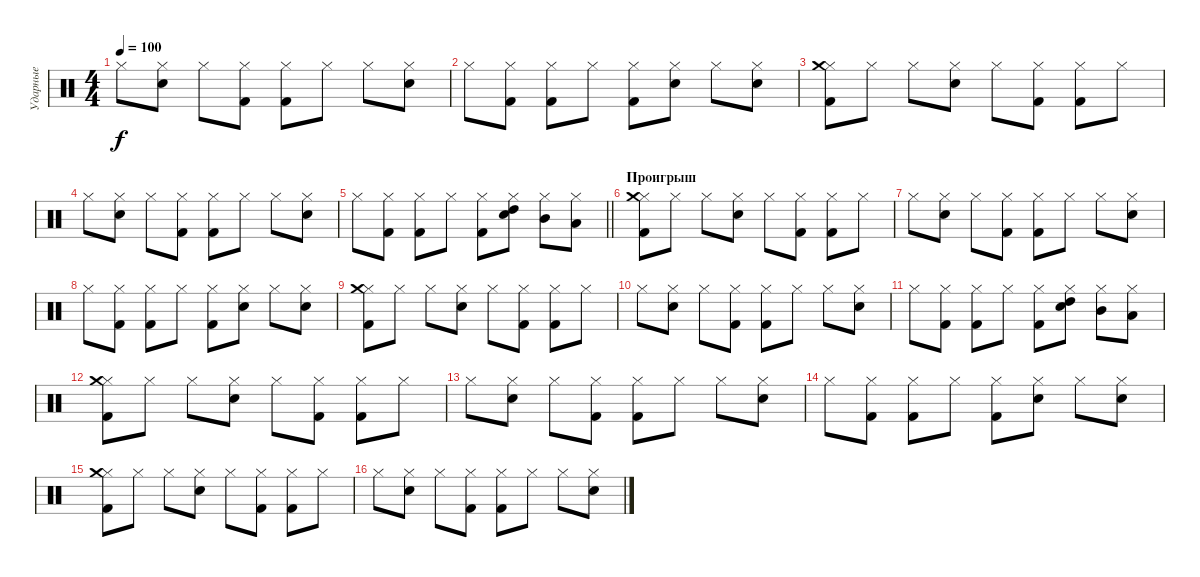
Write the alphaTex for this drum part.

\track ("Ударные" "Ударные") {instrument percussion}
\staff {score}
\articulation defaults
\ts (4 4)
\tempo 100
\clef neutral
\ks c "Hi-Hat (closed)".8{dy f}
("Hi-Hat (closed)" "Electric Snare (hit)").8 "Hi-Hat (closed)".8 ("Hi-Hat (closed)" "Kick (hit) 2").8 ("Hi-Hat (closed)" "Kick (hit) 2").8 "Hi-Hat (closed)".8 "Hi-Hat (closed)".8 ("Hi-Hat (closed)" "Electric Snare (hit)").8 |
"Hi-Hat (closed)".8 ("Hi-Hat (closed)" "Kick (hit) 2").8 ("Hi-Hat (closed)" "Kick (hit) 2").8 "Hi-Hat (closed)".8 ("Hi-Hat (closed)" "Kick (hit) 2").8 ("Hi-Hat (closed)" "Electric Snare (hit)").8 "Hi-Hat (closed)".8 ("Hi-Hat (closed)" "Electric Snare (hit)").8 |
("Hi-Hat (closed)" "Kick (hit) 2" "Crash medium (hit)").8 "Hi-Hat (closed)".8 "Hi-Hat (closed)".8 ("Hi-Hat (closed)" "Electric Snare (hit)").8 "Hi-Hat (closed)".8 ("Hi-Hat (closed)" "Kick (hit) 2").8 ("Hi-Hat (closed)" "Kick (hit) 2").8 "Hi-Hat (closed)".8 |
"Hi-Hat (closed)".8 ("Hi-Hat (closed)" "Electric Snare (hit)").8 "Hi-Hat (closed)".8 ("Hi-Hat (closed)" "Kick (hit) 2").8 ("Hi-Hat (closed)" "Kick (hit) 2").8 "Hi-Hat (closed)".8 "Hi-Hat (closed)".8 ("Hi-Hat (closed)" "Electric Snare (hit)").8 |
\barLineRight lightlight "Hi-Hat (closed)".8
("Hi-Hat (closed)" "Kick (hit) 2").8 ("Hi-Hat (closed)" "Kick (hit) 2").8 "Hi-Hat (closed)".8 ("Hi-Hat (closed)" "Kick (hit) 2").8 ("Hi-Hat (closed)" "Electric Snare (hit)" "High Tom (hit)").8 ("Hi-Hat (closed)" "Mid Tom (hit)").8 ("Hi-Hat (closed)" "Low Tom (hit)").8 |
\section ("" "Проигрыш")
("Hi-Hat (closed)" "Kick (hit) 2" "Crash medium (hit)").8 "Hi-Hat (closed)".8 "Hi-Hat (closed)".8 ("Hi-Hat (closed)" "Electric Snare (hit)").8 "Hi-Hat (closed)".8 ("Hi-Hat (closed)" "Kick (hit) 2").8 ("Hi-Hat (closed)" "Kick (hit) 2").8 "Hi-Hat (closed)".8 |
"Hi-Hat (closed)".8 ("Hi-Hat (closed)" "Electric Snare (hit)").8 "Hi-Hat (closed)".8 ("Hi-Hat (closed)" "Kick (hit) 2").8 ("Hi-Hat (closed)" "Kick (hit) 2").8 "Hi-Hat (closed)".8 "Hi-Hat (closed)".8 ("Hi-Hat (closed)" "Electric Snare (hit)").8 |
"Hi-Hat (closed)".8 ("Hi-Hat (closed)" "Kick (hit) 2").8 ("Hi-Hat (closed)" "Kick (hit) 2").8 "Hi-Hat (closed)".8 ("Hi-Hat (closed)" "Kick (hit) 2").8 ("Hi-Hat (closed)" "Electric Snare (hit)").8 "Hi-Hat (closed)".8 ("Hi-Hat (closed)" "Electric Snare (hit)").8 |
("Hi-Hat (closed)" "Kick (hit) 2" "Crash medium (hit)").8 "Hi-Hat (closed)".8 "Hi-Hat (closed)".8 ("Hi-Hat (closed)" "Electric Snare (hit)").8 "Hi-Hat (closed)".8 ("Hi-Hat (closed)" "Kick (hit) 2").8 ("Hi-Hat (closed)" "Kick (hit) 2").8 "Hi-Hat (closed)".8 |
"Hi-Hat (closed)".8 ("Hi-Hat (closed)" "Electric Snare (hit)").8 "Hi-Hat (closed)".8 ("Hi-Hat (closed)" "Kick (hit) 2").8 ("Hi-Hat (closed)" "Kick (hit) 2").8 "Hi-Hat (closed)".8 "Hi-Hat (closed)".8 ("Hi-Hat (closed)" "Electric Snare (hit)").8 |
"Hi-Hat (closed)".8 ("Hi-Hat (closed)" "Kick (hit) 2").8 ("Hi-Hat (closed)" "Kick (hit) 2").8 "Hi-Hat (closed)".8 ("Hi-Hat (closed)" "Kick (hit) 2").8 ("Hi-Hat (closed)" "Electric Snare (hit)" "High Tom (hit)").8 ("Hi-Hat (closed)" "Mid Tom (hit)").8 ("Hi-Hat (closed)" "Low Tom (hit)").8 |
("Hi-Hat (closed)" "Kick (hit) 2" "Crash medium (hit)").8 "Hi-Hat (closed)".8 "Hi-Hat (closed)".8 ("Hi-Hat (closed)" "Electric Snare (hit)").8 "Hi-Hat (closed)".8 ("Hi-Hat (closed)" "Kick (hit) 2").8 ("Hi-Hat (closed)" "Kick (hit) 2").8 "Hi-Hat (closed)".8 |
"Hi-Hat (closed)".8 ("Hi-Hat (closed)" "Electric Snare (hit)").8 "Hi-Hat (closed)".8 ("Hi-Hat (closed)" "Kick (hit) 2").8 ("Hi-Hat (closed)" "Kick (hit) 2").8 "Hi-Hat (closed)".8 "Hi-Hat (closed)".8 ("Hi-Hat (closed)" "Electric Snare (hit)").8 |
"Hi-Hat (closed)".8 ("Hi-Hat (closed)" "Kick (hit) 2").8 ("Hi-Hat (closed)" "Kick (hit) 2").8 "Hi-Hat (closed)".8 ("Hi-Hat (closed)" "Kick (hit) 2").8 ("Hi-Hat (closed)" "Electric Snare (hit)").8 "Hi-Hat (closed)".8 ("Hi-Hat (closed)" "Electric Snare (hit)").8 |
("Hi-Hat (closed)" "Kick (hit) 2" "Crash medium (hit)").8 "Hi-Hat (closed)".8 "Hi-Hat (closed)".8 ("Hi-Hat (closed)" "Electric Snare (hit)").8 "Hi-Hat (closed)".8 ("Hi-Hat (closed)" "Kick (hit) 2").8 ("Hi-Hat (closed)" "Kick (hit) 2").8 "Hi-Hat (closed)".8 |
"Hi-Hat (closed)".8 ("Hi-Hat (closed)" "Electric Snare (hit)").8 "Hi-Hat (closed)".8 ("Hi-Hat (closed)" "Kick (hit) 2").8 ("Hi-Hat (closed)" "Kick (hit) 2").8 "Hi-Hat (closed)".8 "Hi-Hat (closed)".8 ("Hi-Hat (closed)" "Electric Snare (hit)").8
